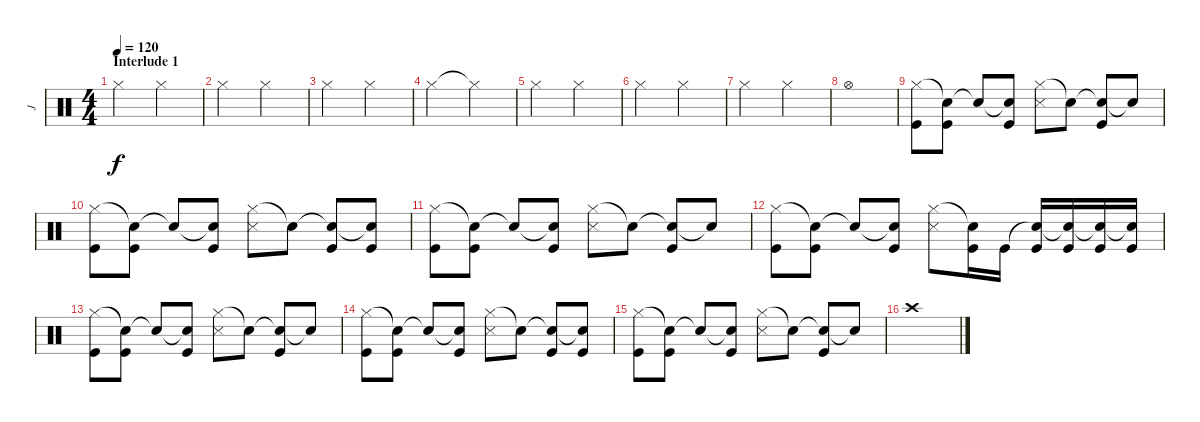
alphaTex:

\track ("J" "J") {instrument percussion}
\staff {score}
\articulation defaults
\ts (4 4)
\section ("" "Interlude 1")
\tempo 120
\clef neutral
\ks c "Hi-Hat (closed)".2{dy f} "Hi-Hat (closed)".2
|
"Hi-Hat (closed)".2 "Hi-Hat (closed)".2 |
"Hi-Hat (closed)".2 "Hi-Hat (closed)".2 |
"Hi-Hat (closed)".2 "Hi-Hat (closed)"{t}.2 |
"Hi-Hat (closed)".2 "Hi-Hat (closed)".2 |
"Hi-Hat (closed)".2 "Hi-Hat (closed)".2 |
"Hi-Hat (closed)".2 "Hi-Hat (closed)".2 |
"Hi-Hat (open)".1 |
("Hi-Hat (closed)" "Kick (hit)").8 ("Snare (hit)"{t} "Kick (hit)").8 "Snare (hit)"{t}.8 ("Snare (hit)"{t} "Kick (hit)").8 ("Hi-Hat (closed)" "Snare (side stick) 3").8 "Snare (hit)"{t}.8 ("Snare (hit)"{t} "Kick (hit)").8 "Snare (hit)"{t}.8 |
("Hi-Hat (closed)" "Kick (hit)").8 ("Snare (hit)"{t} "Kick (hit)").8 "Snare (hit)"{t}.8 ("Snare (hit)"{t} "Kick (hit)").8 ("Hi-Hat (closed)" "Snare (side stick) 3").8 "Snare (hit)"{t}.8 ("Snare (hit)"{t} "Kick (hit)").8 ("Snare (hit)"{t} "Kick (hit)").8 |
("Hi-Hat (closed)" "Kick (hit)").8 ("Snare (hit)"{t} "Kick (hit)").8 "Snare (hit)"{t}.8 ("Snare (hit)"{t} "Kick (hit)").8 ("Hi-Hat (closed)" "Snare (side stick) 3").8 "Snare (hit)"{t}.8 ("Snare (hit)"{t} "Kick (hit)").8 "Snare (hit)"{t}.8 |
("Hi-Hat (closed)" "Kick (hit)").8 ("Snare (hit)"{t} "Kick (hit)").8 "Snare (hit)"{t}.8 ("Snare (hit)"{t} "Kick (hit)").8 ("Hi-Hat (closed)" "Snare (side stick) 3").8 ("Snare (hit)"{t} "Kick (hit)").16 "Kick (hit)".16 ("Snare (hit)"{t} "Kick (hit)").16 ("Snare (hit)"{t} "Kick (hit)").16 ("Snare (hit)"{t} "Kick (hit)").16 ("Snare (hit)"{t} "Kick (hit)").16 |
("Hi-Hat (closed)" "Kick (hit)").8 ("Snare (hit)"{t} "Kick (hit)").8 "Snare (hit)"{t}.8 ("Snare (hit)"{t} "Kick (hit)").8 ("Hi-Hat (closed)" "Snare (side stick) 3").8 "Snare (hit)"{t}.8 ("Snare (hit)"{t} "Kick (hit)").8 "Snare (hit)"{t}.8 |
("Hi-Hat (closed)" "Kick (hit)").8 ("Snare (hit)"{t} "Kick (hit)").8 "Snare (hit)"{t}.8 ("Snare (hit)"{t} "Kick (hit)").8 ("Hi-Hat (closed)" "Snare (side stick) 3").8 "Snare (hit)"{t}.8 ("Snare (hit)"{t} "Kick (hit)").8 ("Snare (hit)"{t} "Kick (hit)").8 |
("Hi-Hat (closed)" "Kick (hit)").8 ("Snare (hit)"{t} "Kick (hit)").8 "Snare (hit)"{t}.8 ("Snare (hit)"{t} "Kick (hit)").8 ("Hi-Hat (closed)" "Snare (side stick) 3").8 "Snare (hit)"{t}.8 ("Snare (hit)"{t} "Kick (hit)").8 "Snare (hit)"{t}.8 |
"Crash high (hit)".1
